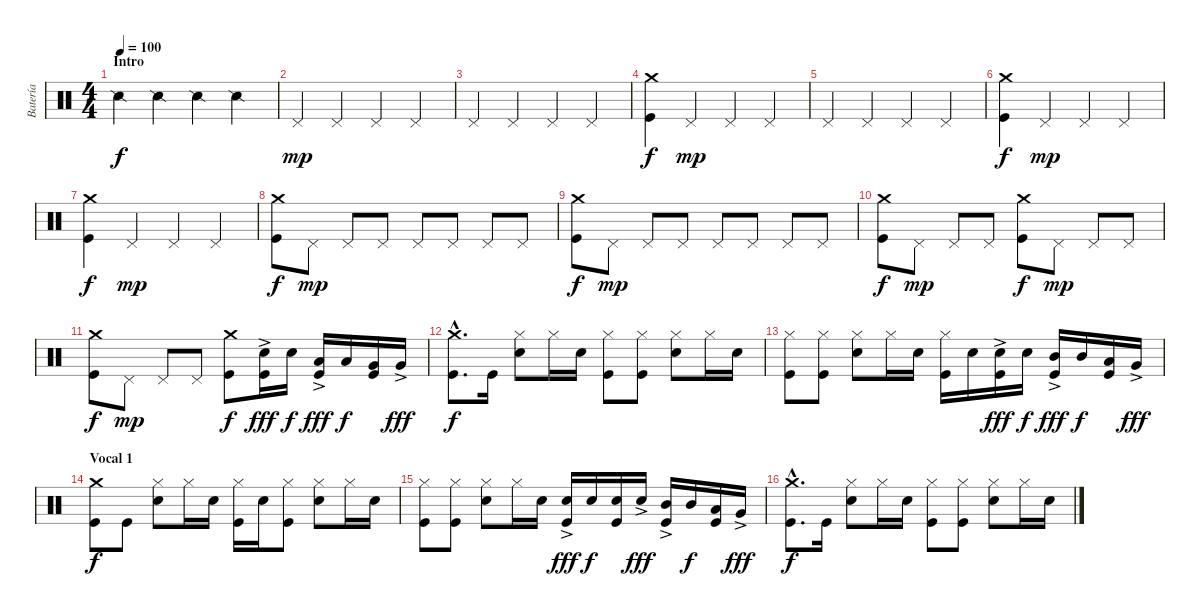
\track ("Batería" "Batería") {instrument percussion}
\staff {score}
\articulation defaults
\ts (4 4)
\section ("" "Intro")
\tempo 100
\clef neutral
\ks c "Snare (side stick) 2".4{dy f} "Snare (side stick) 2".4 "Snare (side stick) 2".4 "Snare (side stick) 2".4
|
"Pedal Hi-Hat (hit)".4{dy mp} "Pedal Hi-Hat (hit)".4 "Pedal Hi-Hat (hit)".4 "Pedal Hi-Hat (hit)".4 |
"Pedal Hi-Hat (hit)".4 "Pedal Hi-Hat (hit)".4 "Pedal Hi-Hat (hit)".4 "Pedal Hi-Hat (hit)".4 |
("Kick (hit)" "Crash medium (hit)").4{dy f} "Pedal Hi-Hat (hit)".4{dy mp} "Pedal Hi-Hat (hit)".4 "Pedal Hi-Hat (hit)".4 |
"Pedal Hi-Hat (hit)".4 "Pedal Hi-Hat (hit)".4 "Pedal Hi-Hat (hit)".4 "Pedal Hi-Hat (hit)".4 |
("Kick (hit)" "Crash medium (hit)").4{dy f} "Pedal Hi-Hat (hit)".4{dy mp} "Pedal Hi-Hat (hit)".4 "Pedal Hi-Hat (hit)".4 |
("Kick (hit)" "Crash medium (hit)").4{dy f} "Pedal Hi-Hat (hit)".4{dy mp} "Pedal Hi-Hat (hit)".4 "Pedal Hi-Hat (hit)".4 |
("Kick (hit)" "Crash medium (hit)").8{dy f} "Pedal Hi-Hat (hit)".8{dy mp} "Pedal Hi-Hat (hit)".8 "Pedal Hi-Hat (hit)".8 "Pedal Hi-Hat (hit)".8 "Pedal Hi-Hat (hit)".8 "Pedal Hi-Hat (hit)".8 "Pedal Hi-Hat (hit)".8 |
("Kick (hit)" "Crash medium (hit)").8{dy f} "Pedal Hi-Hat (hit)".8{dy mp} "Pedal Hi-Hat (hit)".8 "Pedal Hi-Hat (hit)".8 "Pedal Hi-Hat (hit)".8 "Pedal Hi-Hat (hit)".8 "Pedal Hi-Hat (hit)".8 "Pedal Hi-Hat (hit)".8 |
("Kick (hit)" "Crash medium (hit)").8{dy f} "Pedal Hi-Hat (hit)".8{dy mp} "Pedal Hi-Hat (hit)".8 "Pedal Hi-Hat (hit)".8 ("Kick (hit)" "Crash medium (hit)").8{dy f} "Pedal Hi-Hat (hit)".8{dy mp} "Pedal Hi-Hat (hit)".8 "Pedal Hi-Hat (hit)".8 |
("Kick (hit)" "Crash medium (hit)").8{dy f} "Pedal Hi-Hat (hit)".8{dy mp} "Pedal Hi-Hat (hit)".8 "Pedal Hi-Hat (hit)".8 ("Kick (hit)" "Crash medium (hit)").8{dy f} ("Kick (hit)" "Electric Snare (hit)"{ac}).16{dy fff} "Electric Snare (hit)".16{dy f} ("Kick (hit)" "Low Tom (hit)"{ac}).16{dy fff} "Low Tom (hit)".16{dy f} ("Kick (hit)" "Very Low Tom (hit)").16 "Very Low Tom (hit)"{ac}.16{dy fff} |
("Kick (hit)"{hac} "Crash medium (hit)"{hac}).8{d dy f} "Kick (hit)".16 ("Electric Snare (hit)" "Hi-Hat (closed)").8 "Hi-Hat (closed)".16 "Electric Snare (hit)".16 ("Kick (hit)" "Hi-Hat (closed)").8 ("Kick (hit)" "Hi-Hat (closed)").8 ("Electric Snare (hit)" "Hi-Hat (closed)").8 "Hi-Hat (closed)".16 "Electric Snare (hit)".16 |
("Kick (hit)" "Hi-Hat (closed)").8 ("Kick (hit)" "Hi-Hat (closed)").8 ("Electric Snare (hit)" "Hi-Hat (closed)").8 "Hi-Hat (closed)".16 "Electric Snare (hit)".16 ("Kick (hit)" "Hi-Hat (closed)").16 "Electric Snare (hit)".16 ("Kick (hit)" "Electric Snare (hit)"{ac}).16{dy fff} "Electric Snare (hit)".16{dy f} ("Kick (hit)" "Mid Tom (hit)"{ac}).16{dy fff} "Mid Tom (hit)".16{dy f} ("Kick (hit)" "Low Tom (hit)").16 "Very Low Tom (hit)"{ac}.16{dy fff} |
\section ("" "Vocal 1")
("Kick (hit)" "Crash medium (hit)").8{dy f} "Kick (hit)".8 ("Electric Snare (hit)" "Hi-Hat (closed)").8 "Hi-Hat (closed)".16 "Electric Snare (hit)".16 ("Kick (hit)" "Hi-Hat (closed)").16 "Electric Snare (hit)".16 ("Kick (hit)" "Hi-Hat (closed)").8 ("Electric Snare (hit)" "Hi-Hat (closed)").8 "Hi-Hat (closed)".16 "Electric Snare (hit)".16 |
("Kick (hit)" "Hi-Hat (closed)").8 ("Kick (hit)" "Hi-Hat (closed)").8 ("Electric Snare (hit)" "Hi-Hat (closed)").8 "Hi-Hat (closed)".16 "Electric Snare (hit)".16 ("Kick (hit)" "Electric Snare (hit)"{ac}).16{dy fff} "Electric Snare (hit)".16{dy f} ("Kick (hit)" "Electric Snare (hit)").16 "Electric Snare (hit)"{ac}.16{dy fff} ("Kick (hit)" "Mid Tom (hit)"{ac}).16 "Mid Tom (hit)".16{dy f} ("Kick (hit)" "Low Tom (hit)").16 "Very Low Tom (hit)"{ac}.16{dy fff} |
("Kick (hit)"{hac} "Crash medium (hit)"{hac}).8{d dy f} "Kick (hit)".16 ("Electric Snare (hit)" "Hi-Hat (closed)").8 "Hi-Hat (closed)".16 "Electric Snare (hit)".16 ("Kick (hit)" "Hi-Hat (closed)").8 ("Kick (hit)" "Hi-Hat (closed)").8 ("Electric Snare (hit)" "Hi-Hat (closed)").8 "Hi-Hat (closed)".16 "Electric Snare (hit)".16
